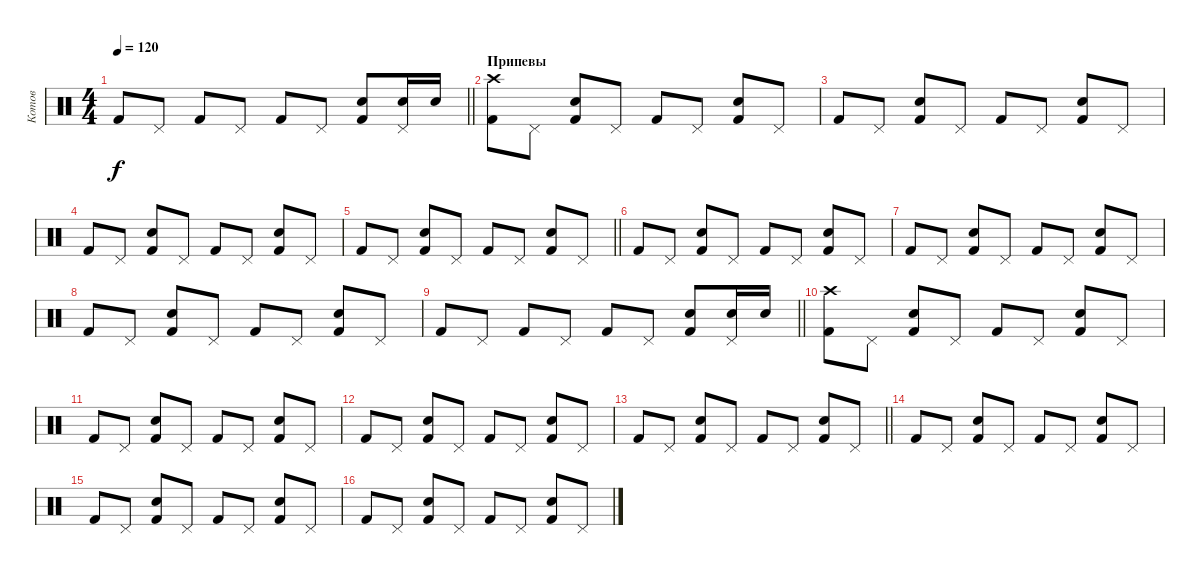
\track ("Котов" "Котов") {instrument percussion}
\staff {score}
\articulation defaults
\ts (4 4)
\tempo 120
\clef neutral
\barLineRight lightlight
\ks c "Kick (hit) 2".8{dy f} "Pedal Hi-Hat (hit)".8 "Kick (hit) 2".8 "Pedal Hi-Hat (hit)".8 "Kick (hit) 2".8 "Pedal Hi-Hat (hit)".8
("Kick (hit) 2" "Snare (hit) 2").8 ("Pedal Hi-Hat (hit)" "Snare (hit) 2").16 "Snare (hit) 2".16 |
\section ("" "Припевы")
("Kick (hit) 2" "Crash high (hit)").8 "Pedal Hi-Hat (hit)".8 ("Kick (hit) 2" "Snare (hit) 2").8 "Pedal Hi-Hat (hit)".8 "Kick (hit) 2".8 "Pedal Hi-Hat (hit)".8 ("Kick (hit) 2" "Snare (hit) 2").8 "Pedal Hi-Hat (hit)".8 |
"Kick (hit) 2".8 "Pedal Hi-Hat (hit)".8 ("Kick (hit) 2" "Snare (hit) 2").8 "Pedal Hi-Hat (hit)".8 "Kick (hit) 2".8 "Pedal Hi-Hat (hit)".8 ("Kick (hit) 2" "Snare (hit) 2").8 "Pedal Hi-Hat (hit)".8 |
"Kick (hit) 2".8 "Pedal Hi-Hat (hit)".8 ("Kick (hit) 2" "Snare (hit) 2").8 "Pedal Hi-Hat (hit)".8 "Kick (hit) 2".8 "Pedal Hi-Hat (hit)".8 ("Kick (hit) 2" "Snare (hit) 2").8 "Pedal Hi-Hat (hit)".8 |
\barLineRight lightlight "Kick (hit) 2".8 "Pedal Hi-Hat (hit)".8
("Kick (hit) 2" "Snare (hit) 2").8 "Pedal Hi-Hat (hit)".8 "Kick (hit) 2".8 "Pedal Hi-Hat (hit)".8 ("Kick (hit) 2" "Snare (hit) 2").8 "Pedal Hi-Hat (hit)".8 |
"Kick (hit) 2".8 "Pedal Hi-Hat (hit)".8 ("Kick (hit) 2" "Snare (hit) 2").8 "Pedal Hi-Hat (hit)".8 "Kick (hit) 2".8 "Pedal Hi-Hat (hit)".8 ("Kick (hit) 2" "Snare (hit) 2").8 "Pedal Hi-Hat (hit)".8 |
"Kick (hit) 2".8 "Pedal Hi-Hat (hit)".8 ("Kick (hit) 2" "Snare (hit) 2").8 "Pedal Hi-Hat (hit)".8 "Kick (hit) 2".8 "Pedal Hi-Hat (hit)".8 ("Kick (hit) 2" "Snare (hit) 2").8 "Pedal Hi-Hat (hit)".8 |
"Kick (hit) 2".8 "Pedal Hi-Hat (hit)".8 ("Kick (hit) 2" "Snare (hit) 2").8 "Pedal Hi-Hat (hit)".8 "Kick (hit) 2".8 "Pedal Hi-Hat (hit)".8 ("Kick (hit) 2" "Snare (hit) 2").8 "Pedal Hi-Hat (hit)".8 |
\barLineRight lightlight "Kick (hit) 2".8 "Pedal Hi-Hat (hit)".8 "Kick (hit) 2".8 "Pedal Hi-Hat (hit)".8 "Kick (hit) 2".8 "Pedal Hi-Hat (hit)".8
("Kick (hit) 2" "Snare (hit) 2").8 ("Pedal Hi-Hat (hit)" "Snare (hit) 2").16 "Snare (hit) 2".16 |
("Kick (hit) 2" "Crash high (hit)").8 "Pedal Hi-Hat (hit)".8 ("Kick (hit) 2" "Snare (hit) 2").8 "Pedal Hi-Hat (hit)".8 "Kick (hit) 2".8 "Pedal Hi-Hat (hit)".8 ("Kick (hit) 2" "Snare (hit) 2").8 "Pedal Hi-Hat (hit)".8 |
"Kick (hit) 2".8 "Pedal Hi-Hat (hit)".8 ("Kick (hit) 2" "Snare (hit) 2").8 "Pedal Hi-Hat (hit)".8 "Kick (hit) 2".8 "Pedal Hi-Hat (hit)".8 ("Kick (hit) 2" "Snare (hit) 2").8 "Pedal Hi-Hat (hit)".8 |
"Kick (hit) 2".8 "Pedal Hi-Hat (hit)".8 ("Kick (hit) 2" "Snare (hit) 2").8 "Pedal Hi-Hat (hit)".8 "Kick (hit) 2".8 "Pedal Hi-Hat (hit)".8 ("Kick (hit) 2" "Snare (hit) 2").8 "Pedal Hi-Hat (hit)".8 |
\barLineRight lightlight "Kick (hit) 2".8 "Pedal Hi-Hat (hit)".8
("Kick (hit) 2" "Snare (hit) 2").8 "Pedal Hi-Hat (hit)".8 "Kick (hit) 2".8 "Pedal Hi-Hat (hit)".8 ("Kick (hit) 2" "Snare (hit) 2").8 "Pedal Hi-Hat (hit)".8 |
"Kick (hit) 2".8 "Pedal Hi-Hat (hit)".8 ("Kick (hit) 2" "Snare (hit) 2").8 "Pedal Hi-Hat (hit)".8 "Kick (hit) 2".8 "Pedal Hi-Hat (hit)".8 ("Kick (hit) 2" "Snare (hit) 2").8 "Pedal Hi-Hat (hit)".8 |
"Kick (hit) 2".8 "Pedal Hi-Hat (hit)".8 ("Kick (hit) 2" "Snare (hit) 2").8 "Pedal Hi-Hat (hit)".8 "Kick (hit) 2".8 "Pedal Hi-Hat (hit)".8 ("Kick (hit) 2" "Snare (hit) 2").8 "Pedal Hi-Hat (hit)".8 |
"Kick (hit) 2".8 "Pedal Hi-Hat (hit)".8 ("Kick (hit) 2" "Snare (hit) 2").8 "Pedal Hi-Hat (hit)".8 "Kick (hit) 2".8 "Pedal Hi-Hat (hit)".8 ("Kick (hit) 2" "Snare (hit) 2").8 "Pedal Hi-Hat (hit)".8
